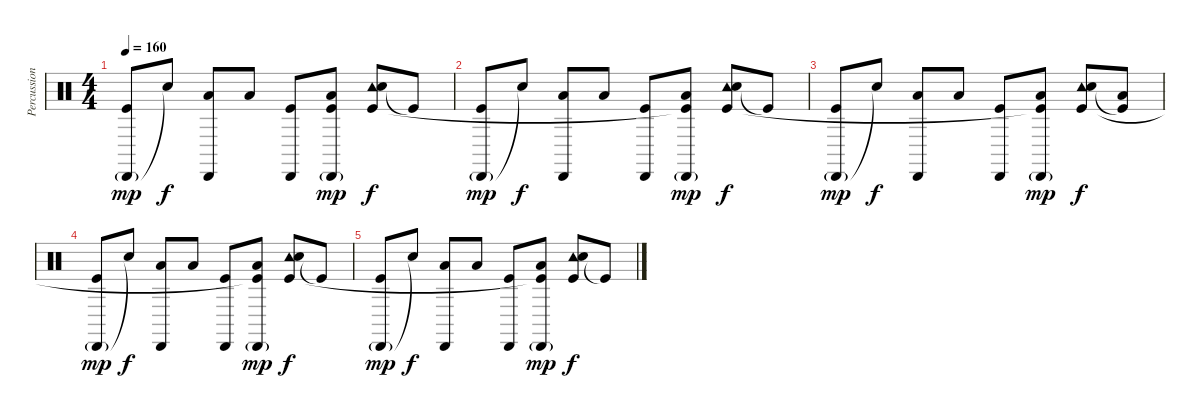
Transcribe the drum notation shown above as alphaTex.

\track ("Percussion" "Percussion") {instrument percussion}
\staff {score}
\articulation defaults
\ts (4 4)
\tempo 160
\clef neutral
\ks c
("Cabasa (hit)"{g} "Kick (hit)").8{dy mp} "Snare (hit)"{t}.8{dy f} ("Cabasa (hit)" "Low Tom (hit)").8 "Low Tom (hit)".8 ("Cabasa (hit)" "Kick (hit)").8 ("Cabasa (hit)"{g} "Low Tom (hit)" "Kick (hit)"{t}).8{dy mp} ("Tambourine (hit)" "Hand Clap (hit)" "Kick (hit)").8{dy f} "Kick (hit)"{t}.8 |
("Cabasa (hit)"{g} "Kick (hit)").8{dy mp} "Snare (hit)"{t}.8{dy f} ("Cabasa (hit)" "Low Tom (hit)").8 "Low Tom (hit)".8 ("Cabasa (hit)" "Kick (hit)").8 ("Cabasa (hit)"{g} "Low Tom (hit)" "Kick (hit)"{t}).8{dy mp} ("Tambourine (hit)" "Hand Clap (hit)" "Kick (hit)").8{dy f} "Kick (hit)"{t}.8 |
("Cabasa (hit)"{g} "Kick (hit)").8{dy mp} "Snare (hit)"{t}.8{dy f} ("Cabasa (hit)" "Low Tom (hit)").8 "Low Tom (hit)".8 ("Cabasa (hit)" "Kick (hit)").8 ("Cabasa (hit)"{g} "Low Tom (hit)" "Kick (hit)"{t}).8{dy mp} ("Tambourine (hit)" "Hand Clap (hit)" "Kick (hit)").8{dy f} ("Low Tom (hit)" "Kick (hit)"{t}).8 |
("Cabasa (hit)"{g} "Kick (hit)").8{dy mp} "Snare (hit)"{t}.8{dy f} ("Cabasa (hit)" "Low Tom (hit)").8 "Low Tom (hit)".8 ("Cabasa (hit)" "Kick (hit)").8 ("Cabasa (hit)"{g} "Low Tom (hit)" "Kick (hit)"{t}).8{dy mp} ("Tambourine (hit)" "Hand Clap (hit)" "Kick (hit)").8{dy f} "Kick (hit)"{t}.8 |
("Cabasa (hit)"{g} "Kick (hit)").8{dy mp} "Snare (hit)"{t}.8{dy f} ("Cabasa (hit)" "Low Tom (hit)").8 "Low Tom (hit)".8 ("Cabasa (hit)" "Kick (hit)").8 ("Cabasa (hit)"{g} "Low Tom (hit)" "Kick (hit)"{t}).8{dy mp} ("Tambourine (hit)" "Hand Clap (hit)" "Kick (hit)").8{dy f} "Kick (hit)"{t}.8
